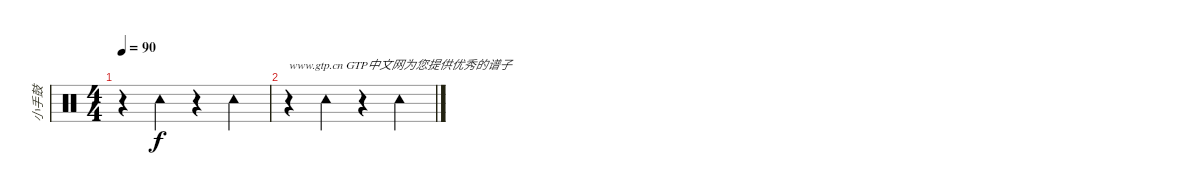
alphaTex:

\track ("小手鼓" "小手鼓") {instrument percussion}
\staff {score}
\articulation defaults
\ts (4 4)
\tempo 90
\clef neutral
\ks c
r.4{dy f} "Tambourine (hit)".4 r.4 "Tambourine (hit)".4 |
r.4{txt "www.gtp.cn GTP中文网为您提供优秀的谱子"} "Tambourine (hit)".4 r.4 "Tambourine (hit)".4
